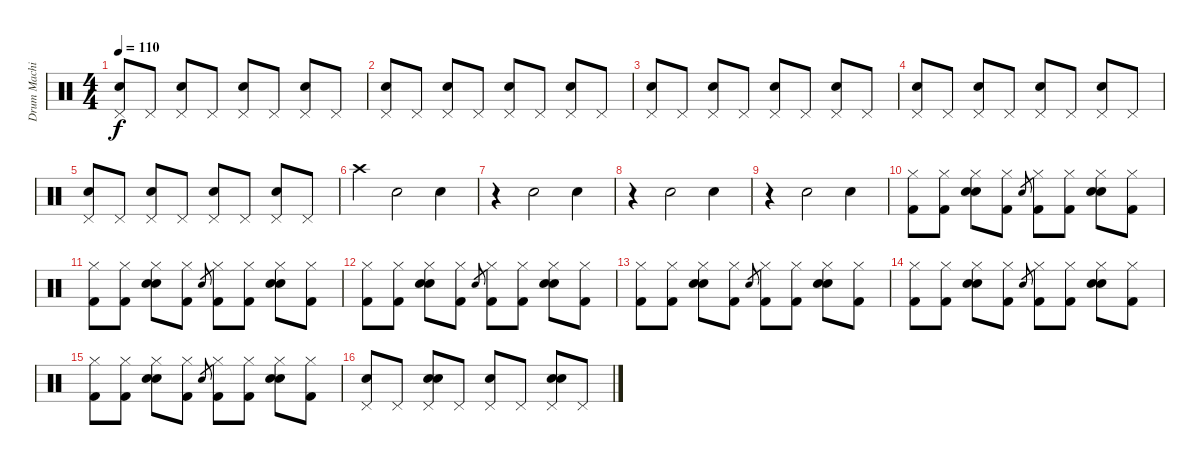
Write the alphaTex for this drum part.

\track ("Drum Machine" "Drum Machi") {instrument percussion}
\staff {score}
\articulation defaults
\ts (4 4)
\tempo 110
\clef neutral
\ks c
("Pedal Hi-Hat (hit)" "Snare (hit) 2").8{dy f} "Pedal Hi-Hat (hit)".8 ("Pedal Hi-Hat (hit)" "Snare (hit) 2").8 "Pedal Hi-Hat (hit)".8 ("Pedal Hi-Hat (hit)" "Snare (hit) 2").8 "Pedal Hi-Hat (hit)".8 ("Pedal Hi-Hat (hit)" "Snare (hit) 2").8 "Pedal Hi-Hat (hit)".8 |
("Pedal Hi-Hat (hit)" "Snare (hit) 2").8 "Pedal Hi-Hat (hit)".8 ("Pedal Hi-Hat (hit)" "Snare (hit) 2").8 "Pedal Hi-Hat (hit)".8 ("Pedal Hi-Hat (hit)" "Snare (hit) 2").8 "Pedal Hi-Hat (hit)".8 ("Pedal Hi-Hat (hit)" "Snare (hit) 2").8 "Pedal Hi-Hat (hit)".8 |
("Pedal Hi-Hat (hit)" "Snare (hit) 2").8 "Pedal Hi-Hat (hit)".8 ("Pedal Hi-Hat (hit)" "Snare (hit) 2").8 "Pedal Hi-Hat (hit)".8 ("Pedal Hi-Hat (hit)" "Snare (hit) 2").8 "Pedal Hi-Hat (hit)".8 ("Pedal Hi-Hat (hit)" "Snare (hit) 2").8 "Pedal Hi-Hat (hit)".8 |
("Pedal Hi-Hat (hit)" "Snare (hit) 2").8 "Pedal Hi-Hat (hit)".8 ("Pedal Hi-Hat (hit)" "Snare (hit) 2").8 "Pedal Hi-Hat (hit)".8 ("Pedal Hi-Hat (hit)" "Snare (hit) 2").8 "Pedal Hi-Hat (hit)".8 ("Pedal Hi-Hat (hit)" "Snare (hit) 2").8 "Pedal Hi-Hat (hit)".8 |
("Pedal Hi-Hat (hit)" "Snare (hit) 2").8 "Pedal Hi-Hat (hit)".8 ("Pedal Hi-Hat (hit)" "Snare (hit) 2").8 "Pedal Hi-Hat (hit)".8 ("Pedal Hi-Hat (hit)" "Snare (hit) 2").8 "Pedal Hi-Hat (hit)".8 ("Pedal Hi-Hat (hit)" "Snare (hit) 2").8 "Pedal Hi-Hat (hit)".8 |
"Crash high (hit)".4 "Hand Clap (hit)".2 "Hand Clap (hit)".4 |
r.4 "Hand Clap (hit)".2 "Hand Clap (hit)".4 |
r.4 "Hand Clap (hit)".2 "Hand Clap (hit)".4 |
r.4 "Hand Clap (hit)".2 "Hand Clap (hit)".4 |
("Hi-Hat (closed)" "Kick (hit) 2").8 ("Hi-Hat (closed)" "Kick (hit) 2").8 ("Hi-Hat (closed)" "Snare (hit) 2" "Hand Clap (hit)").8 ("Hi-Hat (closed)" "Kick (hit) 2").8 "Snare (hit) 2".8{gr} ("Hi-Hat (closed)" "Kick (hit) 2").8 ("Hi-Hat (closed)" "Kick (hit) 2").8 ("Hi-Hat (closed)" "Snare (hit) 2" "Hand Clap (hit)").8 ("Hi-Hat (closed)" "Kick (hit) 2").8 |
("Hi-Hat (closed)" "Kick (hit) 2").8 ("Hi-Hat (closed)" "Kick (hit) 2").8 ("Hi-Hat (closed)" "Snare (hit) 2" "Hand Clap (hit)").8 ("Hi-Hat (closed)" "Kick (hit) 2").8 "Snare (hit) 2".8{gr} ("Hi-Hat (closed)" "Kick (hit) 2").8 ("Hi-Hat (closed)" "Kick (hit) 2").8 ("Hi-Hat (closed)" "Snare (hit) 2" "Hand Clap (hit)").8 ("Hi-Hat (closed)" "Kick (hit) 2").8 |
("Hi-Hat (closed)" "Kick (hit) 2").8 ("Hi-Hat (closed)" "Kick (hit) 2").8 ("Hi-Hat (closed)" "Snare (hit) 2" "Hand Clap (hit)").8 ("Hi-Hat (closed)" "Kick (hit) 2").8 "Snare (hit) 2".8{gr} ("Hi-Hat (closed)" "Kick (hit) 2").8 ("Hi-Hat (closed)" "Kick (hit) 2").8 ("Hi-Hat (closed)" "Snare (hit) 2" "Hand Clap (hit)").8 ("Hi-Hat (closed)" "Kick (hit) 2").8 |
("Hi-Hat (closed)" "Kick (hit) 2").8 ("Hi-Hat (closed)" "Kick (hit) 2").8 ("Hi-Hat (closed)" "Snare (hit) 2" "Hand Clap (hit)").8 ("Hi-Hat (closed)" "Kick (hit) 2").8 "Snare (hit) 2".8{gr} ("Hi-Hat (closed)" "Kick (hit) 2").8 ("Hi-Hat (closed)" "Kick (hit) 2").8 ("Hi-Hat (closed)" "Snare (hit) 2" "Hand Clap (hit)").8 ("Hi-Hat (closed)" "Kick (hit) 2").8 |
("Hi-Hat (closed)" "Kick (hit) 2").8 ("Hi-Hat (closed)" "Kick (hit) 2").8 ("Hi-Hat (closed)" "Snare (hit) 2" "Hand Clap (hit)").8 ("Hi-Hat (closed)" "Kick (hit) 2").8 "Snare (hit) 2".8{gr} ("Hi-Hat (closed)" "Kick (hit) 2").8 ("Hi-Hat (closed)" "Kick (hit) 2").8 ("Hi-Hat (closed)" "Snare (hit) 2" "Hand Clap (hit)").8 ("Hi-Hat (closed)" "Kick (hit) 2").8 |
("Hi-Hat (closed)" "Kick (hit) 2").8 ("Hi-Hat (closed)" "Kick (hit) 2").8 ("Hi-Hat (closed)" "Snare (hit) 2" "Hand Clap (hit)").8 ("Hi-Hat (closed)" "Kick (hit) 2").8 "Snare (hit) 2".8{gr} ("Hi-Hat (closed)" "Kick (hit) 2").8 ("Hi-Hat (closed)" "Kick (hit) 2").8 ("Hi-Hat (closed)" "Snare (hit) 2" "Hand Clap (hit)").8 ("Hi-Hat (closed)" "Kick (hit) 2").8 |
("Pedal Hi-Hat (hit)" "Snare (hit) 2").8 "Pedal Hi-Hat (hit)".8 ("Pedal Hi-Hat (hit)" "Snare (hit) 2" "Hand Clap (hit)").8 "Pedal Hi-Hat (hit)".8 ("Pedal Hi-Hat (hit)" "Snare (hit) 2").8 "Pedal Hi-Hat (hit)".8 ("Pedal Hi-Hat (hit)" "Snare (hit) 2" "Hand Clap (hit)").8 "Pedal Hi-Hat (hit)".8
